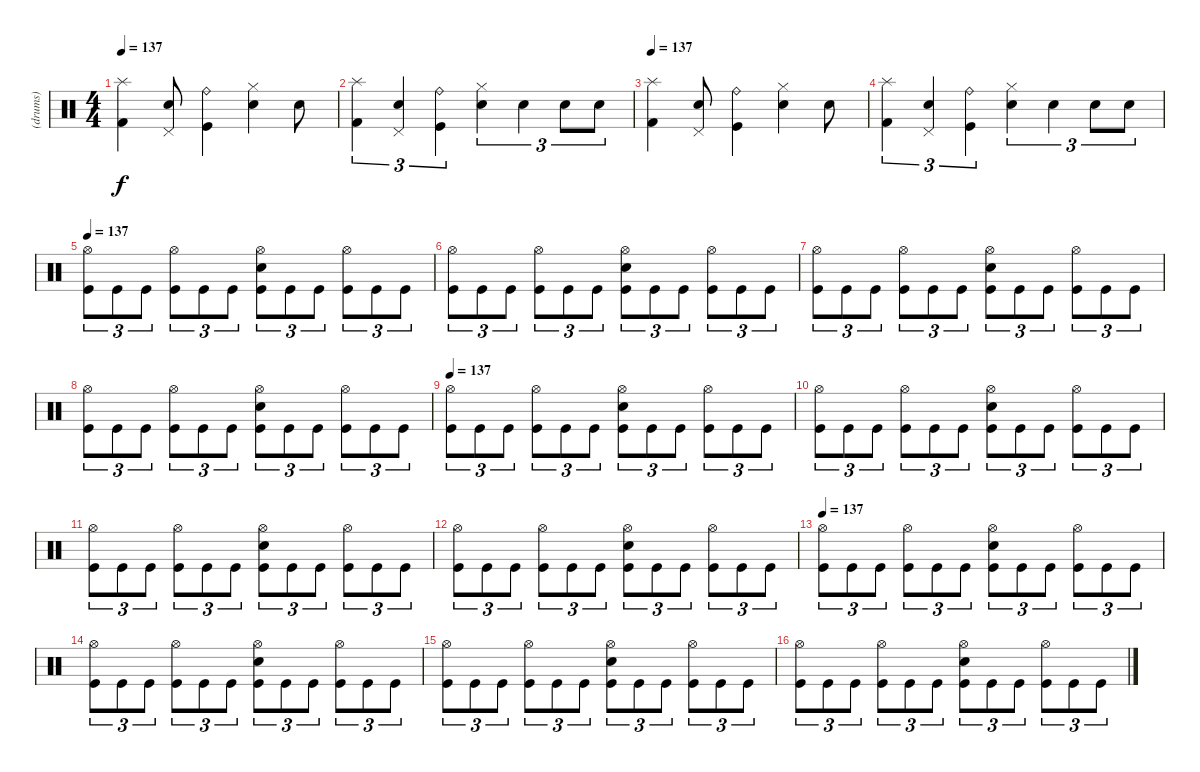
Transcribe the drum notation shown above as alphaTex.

\track ("(drums)" "(drums)") {instrument percussion}
\staff {score}
\articulation defaults
\ts (4 4)
\tempo 137
\clef neutral
\ks c
("Splash (hit)" "Kick (hit) 2").4{dy f} ("Pedal Hi-Hat (hit)" "Snare (hit) 2").8 ("Ride (bell)" "Kick (hit)").4 ("Hi-Hat (closed)" "Snare (hit) 2").4 "Electric Snare (hit)".8 |
("Splash (hit)" "Kick (hit) 2").4{tu (3 2)} ("Pedal Hi-Hat (hit)" "Snare (hit) 2").4{tu (3 2)} ("Ride (bell)" "Kick (hit)").4{tu (3 2)} ("Hi-Hat (closed)" "Snare (hit) 2").4{tu (3 2)} "Electric Snare (hit)".4{tu (3 2)} "Electric Snare (hit)".8{tu (3 2)} "Electric Snare (hit)".8{tu (3 2)} |
\tempo 137
("Splash (hit)" "Kick (hit) 2").4 ("Pedal Hi-Hat (hit)" "Snare (hit) 2").8 ("Ride (bell)" "Kick (hit)").4 ("Hi-Hat (closed)" "Snare (hit) 2").4 "Electric Snare (hit)".8 |
("Splash (hit)" "Kick (hit) 2").4{tu (3 2)} ("Pedal Hi-Hat (hit)" "Snare (hit) 2").4{tu (3 2)} ("Ride (bell)" "Kick (hit)").4{tu (3 2)} ("Hi-Hat (closed)" "Snare (hit) 2").4{tu (3 2)} "Electric Snare (hit)".4{tu (3 2)} "Electric Snare (hit)".8{tu (3 2)} "Electric Snare (hit)".8{tu (3 2)} |
\tempo 137
("Kick (hit)" "Hi-Hat (open)").8{tu (3 2) volume 12 balance 6} "Kick (hit)".8{tu (3 2)} "Kick (hit)".8{tu (3 2)} ("Kick (hit)" "Hi-Hat (open)").8{tu (3 2)} "Kick (hit)".8{tu (3 2)} "Kick (hit)".8{tu (3 2)} ("Kick (hit)" "Snare (hit) 2" "Hi-Hat (open)").8{tu (3 2)} "Kick (hit)".8{tu (3 2)} "Kick (hit)".8{tu (3 2)} ("Kick (hit)" "Hi-Hat (open)").8{tu (3 2)} "Kick (hit)".8{tu (3 2)} "Kick (hit)".8{tu (3 2)} |
("Kick (hit)" "Hi-Hat (open)").8{tu (3 2)} "Kick (hit)".8{tu (3 2)} "Kick (hit)".8{tu (3 2)} ("Kick (hit)" "Hi-Hat (open)").8{tu (3 2)} "Kick (hit)".8{tu (3 2)} "Kick (hit)".8{tu (3 2)} ("Kick (hit)" "Snare (hit) 2" "Hi-Hat (open)").8{tu (3 2)} "Kick (hit)".8{tu (3 2)} "Kick (hit)".8{tu (3 2)} ("Kick (hit)" "Hi-Hat (open)").8{tu (3 2)} "Kick (hit)".8{tu (3 2)} "Kick (hit)".8{tu (3 2)} |
("Kick (hit)" "Hi-Hat (open)").8{tu (3 2)} "Kick (hit)".8{tu (3 2)} "Kick (hit)".8{tu (3 2)} ("Kick (hit)" "Hi-Hat (open)").8{tu (3 2)} "Kick (hit)".8{tu (3 2)} "Kick (hit)".8{tu (3 2)} ("Kick (hit)" "Snare (hit) 2" "Hi-Hat (open)").8{tu (3 2)} "Kick (hit)".8{tu (3 2)} "Kick (hit)".8{tu (3 2)} ("Kick (hit)" "Hi-Hat (open)").8{tu (3 2)} "Kick (hit)".8{tu (3 2)} "Kick (hit)".8{tu (3 2)} |
("Kick (hit)" "Hi-Hat (open)").8{tu (3 2)} "Kick (hit)".8{tu (3 2)} "Kick (hit)".8{tu (3 2)} ("Kick (hit)" "Hi-Hat (open)").8{tu (3 2)} "Kick (hit)".8{tu (3 2)} "Kick (hit)".8{tu (3 2)} ("Kick (hit)" "Snare (hit) 2" "Hi-Hat (open)").8{tu (3 2)} "Kick (hit)".8{tu (3 2)} "Kick (hit)".8{tu (3 2)} ("Kick (hit)" "Hi-Hat (open)").8{tu (3 2)} "Kick (hit)".8{tu (3 2)} "Kick (hit)".8{tu (3 2)} |
\tempo 137
("Kick (hit)" "Hi-Hat (open)").8{tu (3 2) volume 12 balance 6} "Kick (hit)".8{tu (3 2)} "Kick (hit)".8{tu (3 2)} ("Kick (hit)" "Hi-Hat (open)").8{tu (3 2)} "Kick (hit)".8{tu (3 2)} "Kick (hit)".8{tu (3 2)} ("Kick (hit)" "Snare (hit) 2" "Hi-Hat (open)").8{tu (3 2)} "Kick (hit)".8{tu (3 2)} "Kick (hit)".8{tu (3 2)} ("Kick (hit)" "Hi-Hat (open)").8{tu (3 2)} "Kick (hit)".8{tu (3 2)} "Kick (hit)".8{tu (3 2)} |
("Kick (hit)" "Hi-Hat (open)").8{tu (3 2)} "Kick (hit)".8{tu (3 2)} "Kick (hit)".8{tu (3 2)} ("Kick (hit)" "Hi-Hat (open)").8{tu (3 2)} "Kick (hit)".8{tu (3 2)} "Kick (hit)".8{tu (3 2)} ("Kick (hit)" "Snare (hit) 2" "Hi-Hat (open)").8{tu (3 2)} "Kick (hit)".8{tu (3 2)} "Kick (hit)".8{tu (3 2)} ("Kick (hit)" "Hi-Hat (open)").8{tu (3 2)} "Kick (hit)".8{tu (3 2)} "Kick (hit)".8{tu (3 2)} |
("Kick (hit)" "Hi-Hat (open)").8{tu (3 2)} "Kick (hit)".8{tu (3 2)} "Kick (hit)".8{tu (3 2)} ("Kick (hit)" "Hi-Hat (open)").8{tu (3 2)} "Kick (hit)".8{tu (3 2)} "Kick (hit)".8{tu (3 2)} ("Kick (hit)" "Snare (hit) 2" "Hi-Hat (open)").8{tu (3 2)} "Kick (hit)".8{tu (3 2)} "Kick (hit)".8{tu (3 2)} ("Kick (hit)" "Hi-Hat (open)").8{tu (3 2)} "Kick (hit)".8{tu (3 2)} "Kick (hit)".8{tu (3 2)} |
("Kick (hit)" "Hi-Hat (open)").8{tu (3 2)} "Kick (hit)".8{tu (3 2)} "Kick (hit)".8{tu (3 2)} ("Kick (hit)" "Hi-Hat (open)").8{tu (3 2)} "Kick (hit)".8{tu (3 2)} "Kick (hit)".8{tu (3 2)} ("Kick (hit)" "Snare (hit) 2" "Hi-Hat (open)").8{tu (3 2)} "Kick (hit)".8{tu (3 2)} "Kick (hit)".8{tu (3 2)} ("Kick (hit)" "Hi-Hat (open)").8{tu (3 2)} "Kick (hit)".8{tu (3 2)} "Kick (hit)".8{tu (3 2)} |
\tempo 137
("Kick (hit)" "Hi-Hat (open)").8{tu (3 2) volume 12 balance 6} "Kick (hit)".8{tu (3 2)} "Kick (hit)".8{tu (3 2)} ("Kick (hit)" "Hi-Hat (open)").8{tu (3 2)} "Kick (hit)".8{tu (3 2)} "Kick (hit)".8{tu (3 2)} ("Kick (hit)" "Snare (hit) 2" "Hi-Hat (open)").8{tu (3 2)} "Kick (hit)".8{tu (3 2)} "Kick (hit)".8{tu (3 2)} ("Kick (hit)" "Hi-Hat (open)").8{tu (3 2)} "Kick (hit)".8{tu (3 2)} "Kick (hit)".8{tu (3 2)} |
("Kick (hit)" "Hi-Hat (open)").8{tu (3 2)} "Kick (hit)".8{tu (3 2)} "Kick (hit)".8{tu (3 2)} ("Kick (hit)" "Hi-Hat (open)").8{tu (3 2)} "Kick (hit)".8{tu (3 2)} "Kick (hit)".8{tu (3 2)} ("Kick (hit)" "Snare (hit) 2" "Hi-Hat (open)").8{tu (3 2)} "Kick (hit)".8{tu (3 2)} "Kick (hit)".8{tu (3 2)} ("Kick (hit)" "Hi-Hat (open)").8{tu (3 2)} "Kick (hit)".8{tu (3 2)} "Kick (hit)".8{tu (3 2)} |
("Kick (hit)" "Hi-Hat (open)").8{tu (3 2)} "Kick (hit)".8{tu (3 2)} "Kick (hit)".8{tu (3 2)} ("Kick (hit)" "Hi-Hat (open)").8{tu (3 2)} "Kick (hit)".8{tu (3 2)} "Kick (hit)".8{tu (3 2)} ("Kick (hit)" "Snare (hit) 2" "Hi-Hat (open)").8{tu (3 2)} "Kick (hit)".8{tu (3 2)} "Kick (hit)".8{tu (3 2)} ("Kick (hit)" "Hi-Hat (open)").8{tu (3 2)} "Kick (hit)".8{tu (3 2)} "Kick (hit)".8{tu (3 2)} |
("Kick (hit)" "Hi-Hat (open)").8{tu (3 2)} "Kick (hit)".8{tu (3 2)} "Kick (hit)".8{tu (3 2)} ("Kick (hit)" "Hi-Hat (open)").8{tu (3 2)} "Kick (hit)".8{tu (3 2)} "Kick (hit)".8{tu (3 2)} ("Kick (hit)" "Snare (hit) 2" "Hi-Hat (open)").8{tu (3 2)} "Kick (hit)".8{tu (3 2)} "Kick (hit)".8{tu (3 2)} ("Kick (hit)" "Hi-Hat (open)").8{tu (3 2)} "Kick (hit)".8{tu (3 2)} "Kick (hit)".8{tu (3 2)}
